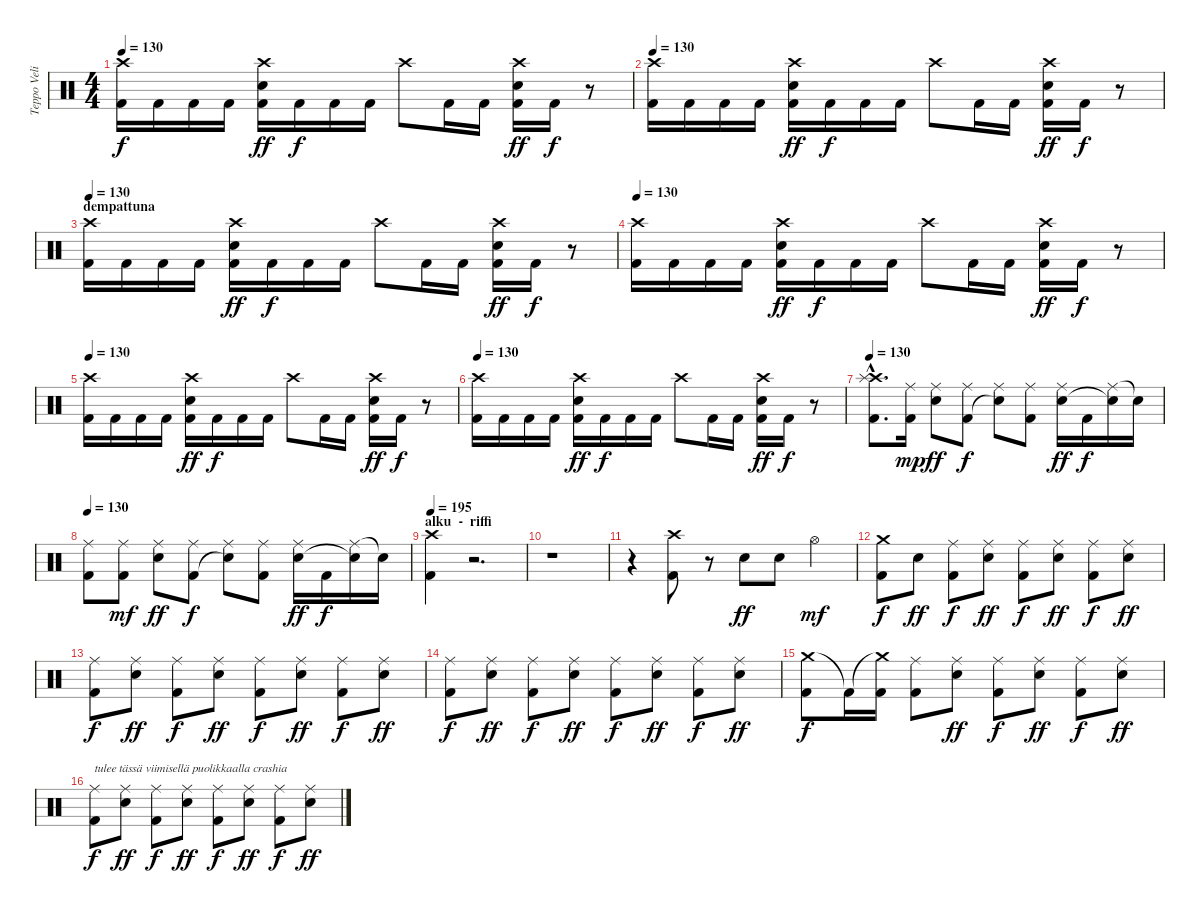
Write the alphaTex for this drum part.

\track ("Teppo Velin" "Teppo Veli") {instrument percussion}
\staff {score}
\articulation defaults
\ts (4 4)
\tempo 130
\clef neutral
\ks c
("Crash high (hit)" "Kick (hit) 2").16{dy f} "Kick (hit) 2".16 "Kick (hit) 2".16 "Kick (hit) 2".16 ("Crash high (hit)" "Electric Snare (hit)" "Kick (hit) 2").16{dy ff} "Kick (hit) 2".16{dy f} "Kick (hit) 2".16 "Kick (hit) 2".16 "Crash high (hit)".8 "Kick (hit) 2".16 "Kick (hit) 2".16 ("Crash high (hit)" "Electric Snare (hit)" "Kick (hit) 2").16{dy ff} "Kick (hit) 2".16{dy f} r.8 |
\tempo 130
("Crash high (hit)" "Kick (hit) 2").16 "Kick (hit) 2".16 "Kick (hit) 2".16 "Kick (hit) 2".16 ("Crash high (hit)" "Electric Snare (hit)" "Kick (hit) 2").16{dy ff} "Kick (hit) 2".16{dy f} "Kick (hit) 2".16 "Kick (hit) 2".16 "Crash high (hit)".8 "Kick (hit) 2".16 "Kick (hit) 2".16 ("Crash high (hit)" "Electric Snare (hit)" "Kick (hit) 2").16{dy ff} "Kick (hit) 2".16{dy f} r.8 |
\section ("" "dempattuna")
\tempo 130
("Crash high (hit)" "Kick (hit) 2").16 "Kick (hit) 2".16 "Kick (hit) 2".16 "Kick (hit) 2".16 ("Crash high (hit)" "Electric Snare (hit)" "Kick (hit) 2").16{dy ff} "Kick (hit) 2".16{dy f} "Kick (hit) 2".16 "Kick (hit) 2".16 "Crash high (hit)".8 "Kick (hit) 2".16 "Kick (hit) 2".16 ("Crash high (hit)" "Electric Snare (hit)" "Kick (hit) 2").16{dy ff} "Kick (hit) 2".16{dy f} r.8 |
\tempo 130
("Crash high (hit)" "Kick (hit) 2").16 "Kick (hit) 2".16 "Kick (hit) 2".16 "Kick (hit) 2".16 ("Crash high (hit)" "Electric Snare (hit)" "Kick (hit) 2").16{dy ff} "Kick (hit) 2".16{dy f} "Kick (hit) 2".16 "Kick (hit) 2".16 "Crash high (hit)".8 "Kick (hit) 2".16 "Kick (hit) 2".16 ("Crash high (hit)" "Electric Snare (hit)" "Kick (hit) 2").16{dy ff} "Kick (hit) 2".16{dy f} r.8 |
\tempo 130
("Crash high (hit)" "Kick (hit) 2").16 "Kick (hit) 2".16 "Kick (hit) 2".16 "Kick (hit) 2".16 ("Crash high (hit)" "Electric Snare (hit)" "Kick (hit) 2").16{dy ff} "Kick (hit) 2".16{dy f} "Kick (hit) 2".16 "Kick (hit) 2".16 "Crash high (hit)".8 "Kick (hit) 2".16 "Kick (hit) 2".16 ("Crash high (hit)" "Electric Snare (hit)" "Kick (hit) 2").16{dy ff} "Kick (hit) 2".16{dy f} r.8 |
\tempo 130
("Crash high (hit)" "Kick (hit) 2").16 "Kick (hit) 2".16 "Kick (hit) 2".16 "Kick (hit) 2".16 ("Crash high (hit)" "Electric Snare (hit)" "Kick (hit) 2").16{dy ff} "Kick (hit) 2".16{dy f} "Kick (hit) 2".16 "Kick (hit) 2".16 "Crash high (hit)".8 "Kick (hit) 2".16 "Kick (hit) 2".16 ("Crash high (hit)" "Electric Snare (hit)" "Kick (hit) 2").16{dy ff} "Kick (hit) 2".16{dy f} r.8 |
\tempo 130
("Crash high (hit)"{hac} "Splash (hit)"{hac} "Kick (hit) 2"{hac}).8{d} ("Ride (middle)" "Kick (hit) 2").16{dy mp} ("Ride (middle)" "Electric Snare (hit)").8{dy ff} ("Ride (middle)" "Kick (hit) 2").8{dy f} ("Ride (middle)" "Snare (hit)"{t}).8 ("Ride (middle)" "Kick (hit) 2").8 ("Ride (middle)" "Electric Snare (hit)").16{dy ff} "Kick (hit) 2".16{dy f} ("Ride (middle)" "Snare (hit)"{t}).16 "Snare (hit)"{t}.16 |
\tempo 130
("Ride (middle)" "Kick (hit) 2").8 ("Ride (middle)" "Kick (hit) 2").8{dy mf} ("Ride (middle)" "Electric Snare (hit)").8{dy ff} ("Ride (middle)" "Kick (hit) 2").8{dy f} ("Ride (middle)" "Snare (hit)"{t}).8 ("Ride (middle)" "Kick (hit) 2").8 ("Ride (middle)" "Electric Snare (hit)").16{dy ff} "Kick (hit) 2".16{dy f} ("Ride (middle)" "Snare (hit)"{t}).16 "Snare (hit)"{t}.16 |
\section ("" "alku  -  riffi")
\tempo 195
("Crash high (hit)" "Kick (hit) 2").4 r.2{d} |
r.1 |
r.4 ("Crash high (hit)" "Kick (hit) 2").8 r.8 "Electric Snare (hit)".8{dy ff} "Electric Snare (hit)".8 "Hi-Hat (open)".4{dy mf} |
("Crash medium (hit)" "Kick (hit) 2").8{dy f} "Electric Snare (hit)".8{dy ff} ("Ride (middle)" "Kick (hit) 2").8{dy f} ("Ride (middle)" "Electric Snare (hit)").8{dy ff} ("Ride (middle)" "Kick (hit) 2").8{dy f} ("Ride (middle)" "Electric Snare (hit)").8{dy ff} ("Ride (middle)" "Kick (hit) 2").8{dy f} ("Ride (middle)" "Electric Snare (hit)").8{dy ff} |
("Ride (middle)" "Kick (hit) 2").8{dy f} ("Ride (middle)" "Electric Snare (hit)").8{dy ff} ("Ride (middle)" "Kick (hit) 2").8{dy f} ("Ride (middle)" "Electric Snare (hit)").8{dy ff} ("Ride (middle)" "Kick (hit) 2").8{dy f} ("Ride (middle)" "Electric Snare (hit)").8{dy ff} ("Ride (middle)" "Kick (hit) 2").8{dy f} ("Ride (middle)" "Electric Snare (hit)").8{dy ff} |
("Ride (middle)" "Kick (hit) 2").8{dy f} ("Ride (middle)" "Electric Snare (hit)").8{dy ff} ("Ride (middle)" "Kick (hit) 2").8{dy f} ("Ride (middle)" "Electric Snare (hit)").8{dy ff} ("Ride (middle)" "Kick (hit) 2").8{dy f} ("Ride (middle)" "Electric Snare (hit)").8{dy ff} ("Ride (middle)" "Kick (hit) 2").8{dy f} ("Ride (middle)" "Electric Snare (hit)").8{dy ff} |
("Crash medium (hit)" "Kick (hit) 2").8{dy f} "Kick (hit) 2"{t}.16 ("Crash medium (hit)"{t} "Kick (hit) 2").16 ("Ride (middle)" "Kick (hit) 2").8 ("Ride (middle)" "Electric Snare (hit)").8{dy ff} ("Ride (middle)" "Kick (hit) 2").8{dy f} ("Ride (middle)" "Electric Snare (hit)").8{dy ff} ("Ride (middle)" "Kick (hit) 2").8{dy f} ("Ride (middle)" "Electric Snare (hit)").8{dy ff} |
("Ride (middle)" "Kick (hit) 2").8{txt "tulee tässä viimisellä puolikkaalla crashia" dy f} ("Ride (middle)" "Electric Snare (hit)").8{dy ff} ("Ride (middle)" "Kick (hit) 2").8{dy f} ("Ride (middle)" "Electric Snare (hit)").8{dy ff} ("Ride (middle)" "Kick (hit) 2").8{dy f} ("Ride (middle)" "Electric Snare (hit)").8{dy ff} ("Ride (middle)" "Kick (hit) 2").8{dy f} ("Ride (middle)" "Electric Snare (hit)").8{dy ff}
